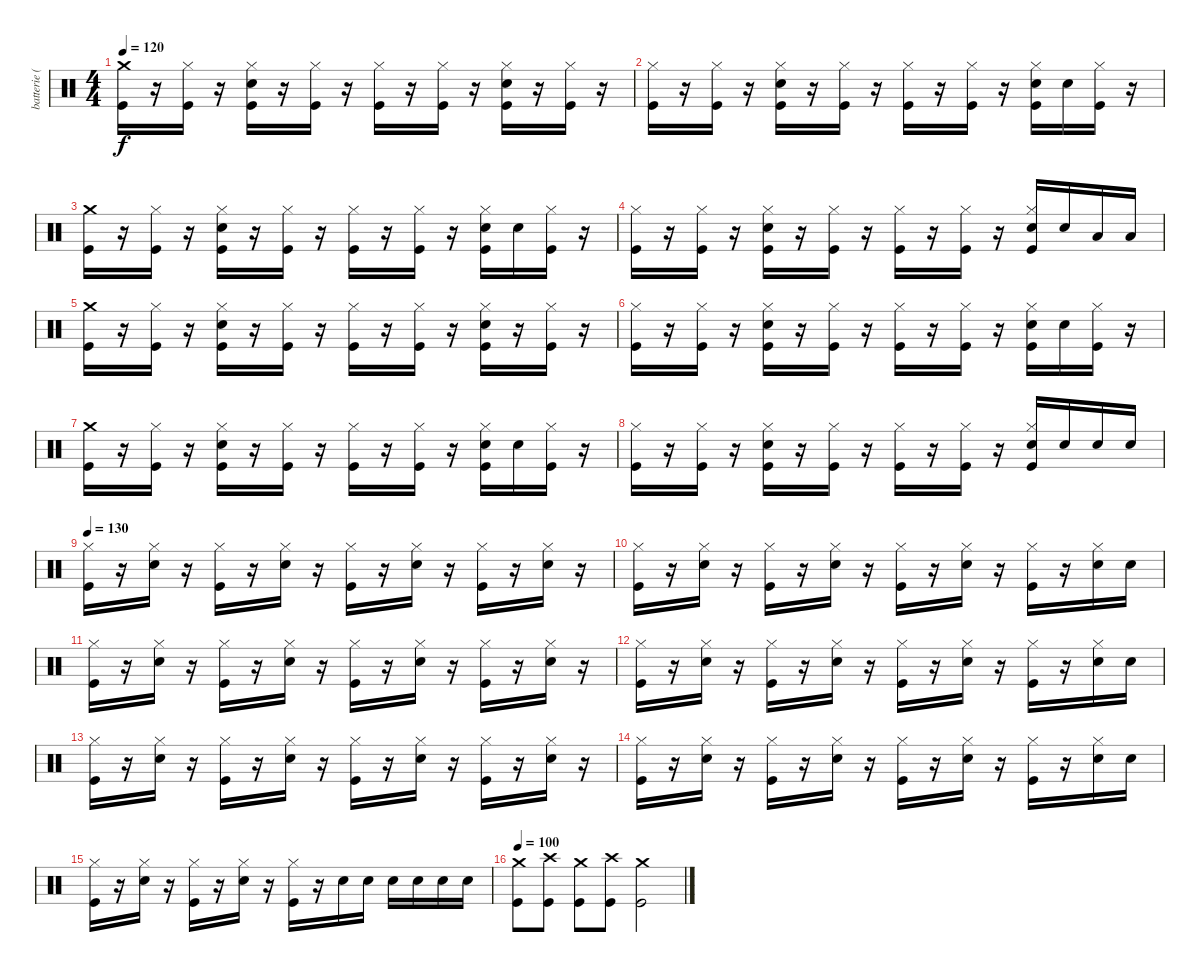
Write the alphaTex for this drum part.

\track ("batterie ( Jeff Nelson ) " "batterie (") {instrument percussion}
\staff {score}
\articulation defaults
\ts (4 4)
\tempo 120
\clef neutral
\ks c
("Crash medium (hit)" "Kick (hit)").16{dy f} r.16 ("Hi-Hat (closed)" "Kick (hit)").16 r.16 ("Hi-Hat (closed)" "Snare (hit) 2" "Kick (hit)").16 r.16 ("Hi-Hat (closed)" "Kick (hit)").16 r.16 ("Hi-Hat (closed)" "Kick (hit)").16 r.16 ("Hi-Hat (closed)" "Kick (hit)").16 r.16 ("Hi-Hat (closed)" "Snare (hit) 2" "Kick (hit)").16 r.16 ("Hi-Hat (closed)" "Kick (hit)").16 r.16 |
("Hi-Hat (closed)" "Kick (hit)").16 r.16 ("Hi-Hat (closed)" "Kick (hit)").16 r.16 ("Hi-Hat (closed)" "Snare (hit) 2" "Kick (hit)").16 r.16 ("Hi-Hat (closed)" "Kick (hit)").16 r.16 ("Hi-Hat (closed)" "Kick (hit)").16 r.16 ("Hi-Hat (closed)" "Kick (hit)").16 r.16 ("Hi-Hat (closed)" "Snare (hit) 2" "Kick (hit)").16 "Snare (hit) 2".16 ("Hi-Hat (closed)" "Kick (hit)").16 r.16 |
("Crash medium (hit)" "Kick (hit)").16 r.16 ("Hi-Hat (closed)" "Kick (hit)").16 r.16 ("Hi-Hat (closed)" "Snare (hit) 2" "Kick (hit)").16 r.16 ("Hi-Hat (closed)" "Kick (hit)").16 r.16 ("Hi-Hat (closed)" "Kick (hit)").16 r.16 ("Hi-Hat (closed)" "Kick (hit)").16 r.16 ("Hi-Hat (closed)" "Snare (hit) 2" "Kick (hit)").16 "Snare (hit) 2".16 ("Hi-Hat (closed)" "Kick (hit)").16 r.16 |
("Hi-Hat (closed)" "Kick (hit)").16 r.16 ("Hi-Hat (closed)" "Kick (hit)").16 r.16 ("Hi-Hat (closed)" "Snare (hit) 2" "Kick (hit)").16 r.16 ("Hi-Hat (closed)" "Kick (hit)").16 r.16 ("Hi-Hat (closed)" "Kick (hit)").16 r.16 ("Hi-Hat (closed)" "Kick (hit)").16 r.16 ("Hi-Hat (closed)" "Snare (hit) 2" "Kick (hit)").16 "Snare (hit) 2".16 "Low Tom (hit)".16 "Low Tom (hit)".16 |
("Crash medium (hit)" "Kick (hit)").16 r.16 ("Hi-Hat (closed)" "Kick (hit)").16 r.16 ("Hi-Hat (closed)" "Snare (hit) 2" "Kick (hit)").16 r.16 ("Hi-Hat (closed)" "Kick (hit)").16 r.16 ("Hi-Hat (closed)" "Kick (hit)").16 r.16 ("Hi-Hat (closed)" "Kick (hit)").16 r.16 ("Hi-Hat (closed)" "Snare (hit) 2" "Kick (hit)").16 r.16 ("Hi-Hat (closed)" "Kick (hit)").16 r.16 |
("Hi-Hat (closed)" "Kick (hit)").16 r.16 ("Hi-Hat (closed)" "Kick (hit)").16 r.16 ("Hi-Hat (closed)" "Snare (hit) 2" "Kick (hit)").16 r.16 ("Hi-Hat (closed)" "Kick (hit)").16 r.16 ("Hi-Hat (closed)" "Kick (hit)").16 r.16 ("Hi-Hat (closed)" "Kick (hit)").16 r.16 ("Hi-Hat (closed)" "Snare (hit) 2" "Kick (hit)").16 "Snare (hit) 2".16 ("Hi-Hat (closed)" "Kick (hit)").16 r.16 |
("Crash medium (hit)" "Kick (hit)").16 r.16 ("Hi-Hat (closed)" "Kick (hit)").16 r.16 ("Hi-Hat (closed)" "Snare (hit) 2" "Kick (hit)").16 r.16 ("Hi-Hat (closed)" "Kick (hit)").16 r.16 ("Hi-Hat (closed)" "Kick (hit)").16 r.16 ("Hi-Hat (closed)" "Kick (hit)").16 r.16 ("Hi-Hat (closed)" "Snare (hit) 2" "Kick (hit)").16 "Snare (hit) 2".16 ("Hi-Hat (closed)" "Kick (hit)").16 r.16 |
("Hi-Hat (closed)" "Kick (hit)").16 r.16 ("Hi-Hat (closed)" "Kick (hit)").16 r.16 ("Hi-Hat (closed)" "Snare (hit) 2" "Kick (hit)").16 r.16 ("Hi-Hat (closed)" "Kick (hit)").16 r.16 ("Hi-Hat (closed)" "Kick (hit)").16 r.16 ("Hi-Hat (closed)" "Kick (hit)").16 r.16 ("Hi-Hat (closed)" "Snare (hit) 2" "Kick (hit)").16 "Snare (hit) 2".16 "Snare (hit) 2".16 "Snare (hit) 2".16 |
\tempo 130
("Hi-Hat (closed)" "Kick (hit)").16 r.16 ("Hi-Hat (closed)" "Snare (hit) 2").16 r.16 ("Hi-Hat (closed)" "Kick (hit)").16 r.16 ("Hi-Hat (closed)" "Snare (hit) 2").16 r.16 ("Hi-Hat (closed)" "Kick (hit)").16 r.16 ("Hi-Hat (closed)" "Snare (hit) 2").16 r.16 ("Hi-Hat (closed)" "Kick (hit)").16 r.16 ("Hi-Hat (closed)" "Snare (hit) 2").16 r.16 |
("Hi-Hat (closed)" "Kick (hit)").16 r.16 ("Hi-Hat (closed)" "Snare (hit) 2").16 r.16 ("Hi-Hat (closed)" "Kick (hit)").16 r.16 ("Hi-Hat (closed)" "Snare (hit) 2").16 r.16 ("Hi-Hat (closed)" "Kick (hit)").16 r.16 ("Hi-Hat (closed)" "Snare (hit) 2").16 r.16 ("Hi-Hat (closed)" "Kick (hit)").16 r.16 ("Hi-Hat (closed)" "Snare (hit) 2").16 "Snare (hit) 2".16 |
("Hi-Hat (closed)" "Kick (hit)").16 r.16 ("Hi-Hat (closed)" "Snare (hit) 2").16 r.16 ("Hi-Hat (closed)" "Kick (hit)").16 r.16 ("Hi-Hat (closed)" "Snare (hit) 2").16 r.16 ("Hi-Hat (closed)" "Kick (hit)").16 r.16 ("Hi-Hat (closed)" "Snare (hit) 2").16 r.16 ("Hi-Hat (closed)" "Kick (hit)").16 r.16 ("Hi-Hat (closed)" "Snare (hit) 2").16 r.16 |
("Hi-Hat (closed)" "Kick (hit)").16 r.16 ("Hi-Hat (closed)" "Snare (hit) 2").16 r.16 ("Hi-Hat (closed)" "Kick (hit)").16 r.16 ("Hi-Hat (closed)" "Snare (hit) 2").16 r.16 ("Hi-Hat (closed)" "Kick (hit)").16 r.16 ("Hi-Hat (closed)" "Snare (hit) 2").16 r.16 ("Hi-Hat (closed)" "Kick (hit)").16 r.16 ("Hi-Hat (closed)" "Snare (hit) 2").16 "Snare (hit) 2".16 |
("Hi-Hat (closed)" "Kick (hit)").16 r.16 ("Hi-Hat (closed)" "Snare (hit) 2").16 r.16 ("Hi-Hat (closed)" "Kick (hit)").16 r.16 ("Hi-Hat (closed)" "Snare (hit) 2").16 r.16 ("Hi-Hat (closed)" "Kick (hit)").16 r.16 ("Hi-Hat (closed)" "Snare (hit) 2").16 r.16 ("Hi-Hat (closed)" "Kick (hit)").16 r.16 ("Hi-Hat (closed)" "Snare (hit) 2").16 r.16 |
("Hi-Hat (closed)" "Kick (hit)").16 r.16 ("Hi-Hat (closed)" "Snare (hit) 2").16 r.16 ("Hi-Hat (closed)" "Kick (hit)").16 r.16 ("Hi-Hat (closed)" "Snare (hit) 2").16 r.16 ("Hi-Hat (closed)" "Kick (hit)").16 r.16 ("Hi-Hat (closed)" "Snare (hit) 2").16 r.16 ("Hi-Hat (closed)" "Kick (hit)").16 r.16 ("Hi-Hat (closed)" "Snare (hit) 2").16 "Snare (hit) 2".16 |
("Hi-Hat (closed)" "Kick (hit)").16 r.16 ("Hi-Hat (closed)" "Snare (hit) 2").16 r.16 ("Hi-Hat (closed)" "Kick (hit)").16 r.16 ("Hi-Hat (closed)" "Snare (hit) 2").16 r.16 ("Hi-Hat (closed)" "Kick (hit)").16 r.16 "Snare (hit) 2".16 "Snare (hit) 2".16 "Snare (hit) 2".16 "Snare (hit) 2".16 "Snare (hit) 2".16 "Snare (hit) 2".16 |
\tempo 100
("Crash medium (hit)" "Kick (hit)").8 ("Crash high (hit)" "Kick (hit)").8 ("Crash medium (hit)" "Kick (hit)").8 ("Crash high (hit)" "Kick (hit)").8 ("Crash medium (hit)" "Kick (hit)").2
